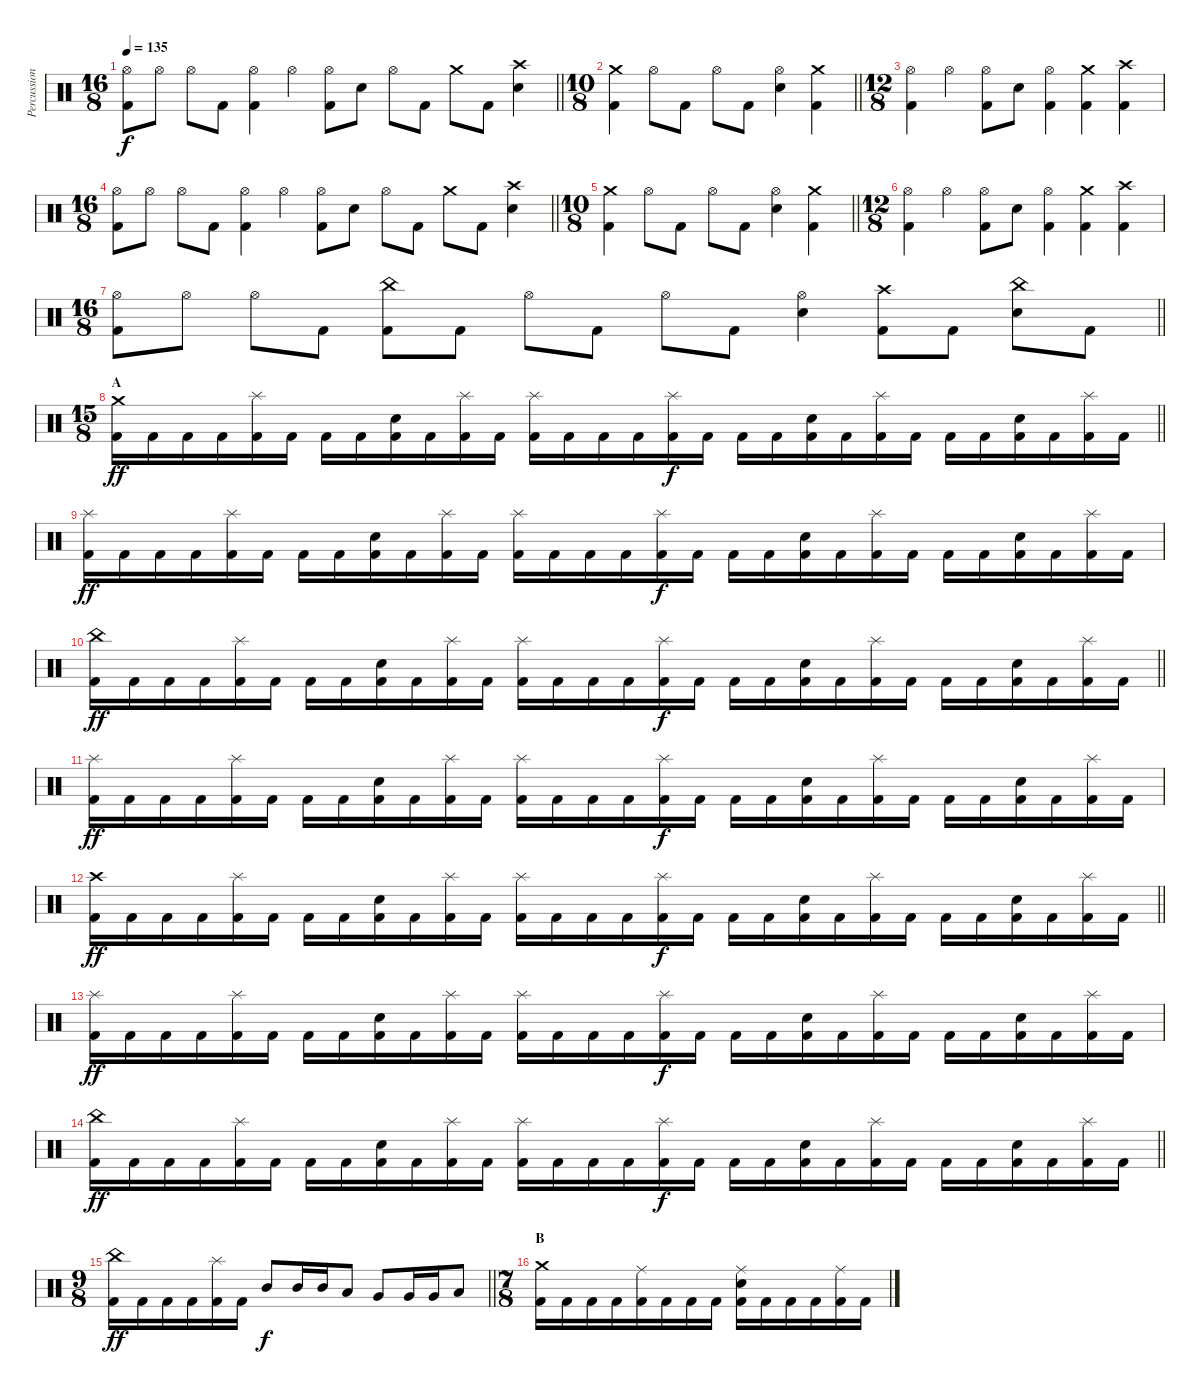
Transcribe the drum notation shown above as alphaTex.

\track ("Percussion" "Percussion") {instrument percussion}
\staff {score}
\articulation defaults
\ts (16 8)
\tempo 135
\clef neutral
\barLineRight lightlight
\ks c
("Hi-Hat (open)" "Kick (hit) 2").8{dy f} "Hi-Hat (open)".8 "Hi-Hat (open)".8 "Kick (hit) 2".8 ("Hi-Hat (open)" "Kick (hit) 2").4 "Hi-Hat (open)".4 ("Hi-Hat (open)" "Kick (hit) 2").8 "Snare (hit) 2".8 "Hi-Hat (open)".8 "Kick (hit) 2".8 "Crash medium (hit)".8 "Kick (hit) 2".8 ("Crash high (hit)" "Snare (hit) 2").4 |
\ts (10 8)
\section ("" "")
\barLineRight lightlight
("Crash medium (hit)" "Kick (hit) 2").4 "Hi-Hat (open)".8 "Kick (hit) 2".8 "Hi-Hat (open)".8 "Kick (hit) 2".8 ("Hi-Hat (open)" "Snare (hit) 2").4 ("Crash medium (hit)" "Kick (hit) 2").4 |
\ts (12 8)
("Hi-Hat (open)" "Kick (hit) 2").4 "Hi-Hat (open)".4 ("Hi-Hat (open)" "Kick (hit) 2").8 "Snare (hit) 2".8 ("Hi-Hat (open)" "Kick (hit) 2").4 ("Crash medium (hit)" "Kick (hit) 2").4 ("Crash high (hit)" "Kick (hit) 2").4 |
\ts (16 8)
\barLineRight lightlight
("Hi-Hat (open)" "Kick (hit) 2").8 "Hi-Hat (open)".8 "Hi-Hat (open)".8 "Kick (hit) 2".8 ("Hi-Hat (open)" "Kick (hit) 2").4 "Hi-Hat (open)".4 ("Hi-Hat (open)" "Kick (hit) 2").8 "Snare (hit) 2".8 "Hi-Hat (open)".8 "Kick (hit) 2".8 "Crash medium (hit)".8 "Kick (hit) 2".8 ("Crash high (hit)" "Snare (hit) 2").4 |
\ts (10 8)
\section ("" "")
\barLineRight lightlight
("Crash medium (hit)" "Kick (hit) 2").4 "Hi-Hat (open)".8 "Kick (hit) 2".8 "Hi-Hat (open)".8 "Kick (hit) 2".8 ("Hi-Hat (open)" "Snare (hit) 2").4 ("Crash medium (hit)" "Kick (hit) 2").4 |
\ts (12 8)
("Hi-Hat (open)" "Kick (hit) 2").4 "Hi-Hat (open)".4 ("Hi-Hat (open)" "Kick (hit) 2").8 "Snare (hit) 2".8 ("Hi-Hat (open)" "Kick (hit) 2").4 ("Crash medium (hit)" "Kick (hit) 2").4 ("Crash high (hit)" "Kick (hit) 2").4 |
\ts (16 8)
\barLineRight lightlight
("Hi-Hat (open)" "Kick (hit) 2").8 "Hi-Hat (open)".8 "Hi-Hat (open)".8 "Kick (hit) 2".8 ("China (hit)" "Kick (hit) 2").8 "Kick (hit) 2".8 "Hi-Hat (open)".8 "Kick (hit) 2".8 "Hi-Hat (open)".8 "Kick (hit) 2".8 ("Hi-Hat (open)" "Snare (hit) 2").4 ("Crash high (hit)" "Kick (hit) 2").8 "Kick (hit) 2".8 ("China (hit)" "Snare (hit) 2").8 "Kick (hit) 2".8 |
\ts (15 8)
\section ("" "A")
\barLineRight lightlight
("Crash medium (hit)" "Kick (hit) 2").16{dy ff} "Kick (hit) 2".16 "Kick (hit) 2".16 "Kick (hit) 2".16 ("Splash (hit)" "Kick (hit) 2").16 "Kick (hit) 2".16 "Kick (hit) 2".16 "Kick (hit) 2".16 ("Snare (hit) 2" "Kick (hit) 2").16 "Kick (hit) 2".16 ("Splash (hit)" "Kick (hit) 2").16 "Kick (hit) 2".16 ("Splash (hit)" "Kick (hit) 2").16 "Kick (hit) 2".16 "Kick (hit) 2".16 "Kick (hit) 2".16 ("Splash (hit)" "Kick (hit) 2").16{dy f} "Kick (hit) 2".16 "Kick (hit) 2".16 "Kick (hit) 2".16 ("Snare (hit) 2" "Kick (hit) 2").16 "Kick (hit) 2".16 ("Splash (hit)" "Kick (hit) 2").16 "Kick (hit) 2".16 "Kick (hit) 2".16 "Kick (hit) 2".16 ("Snare (hit) 2" "Kick (hit) 2").16 "Kick (hit) 2".16 ("Splash (hit)" "Kick (hit) 2").16 "Kick (hit) 2".16 |
("Splash (hit)" "Kick (hit) 2").16{dy ff} "Kick (hit) 2".16 "Kick (hit) 2".16 "Kick (hit) 2".16 ("Splash (hit)" "Kick (hit) 2").16 "Kick (hit) 2".16 "Kick (hit) 2".16 "Kick (hit) 2".16 ("Snare (hit) 2" "Kick (hit) 2").16 "Kick (hit) 2".16 ("Splash (hit)" "Kick (hit) 2").16 "Kick (hit) 2".16 ("Splash (hit)" "Kick (hit) 2").16 "Kick (hit) 2".16 "Kick (hit) 2".16 "Kick (hit) 2".16 ("Splash (hit)" "Kick (hit) 2").16{dy f} "Kick (hit) 2".16 "Kick (hit) 2".16 "Kick (hit) 2".16 ("Snare (hit) 2" "Kick (hit) 2").16 "Kick (hit) 2".16 ("Splash (hit)" "Kick (hit) 2").16 "Kick (hit) 2".16 "Kick (hit) 2".16 "Kick (hit) 2".16 ("Snare (hit) 2" "Kick (hit) 2").16 "Kick (hit) 2".16 ("Splash (hit)" "Kick (hit) 2").16 "Kick (hit) 2".16 |
\barLineRight lightlight
("China (hit)" "Kick (hit) 2").16{dy ff} "Kick (hit) 2".16 "Kick (hit) 2".16 "Kick (hit) 2".16 ("Splash (hit)" "Kick (hit) 2").16 "Kick (hit) 2".16 "Kick (hit) 2".16 "Kick (hit) 2".16 ("Snare (hit) 2" "Kick (hit) 2").16 "Kick (hit) 2".16 ("Splash (hit)" "Kick (hit) 2").16 "Kick (hit) 2".16 ("Splash (hit)" "Kick (hit) 2").16 "Kick (hit) 2".16 "Kick (hit) 2".16 "Kick (hit) 2".16 ("Splash (hit)" "Kick (hit) 2").16{dy f} "Kick (hit) 2".16 "Kick (hit) 2".16 "Kick (hit) 2".16 ("Snare (hit) 2" "Kick (hit) 2").16 "Kick (hit) 2".16 ("Splash (hit)" "Kick (hit) 2").16 "Kick (hit) 2".16 "Kick (hit) 2".16 "Kick (hit) 2".16 ("Snare (hit) 2" "Kick (hit) 2").16 "Kick (hit) 2".16 ("Splash (hit)" "Kick (hit) 2").16 "Kick (hit) 2".16 |
("Splash (hit)" "Kick (hit) 2").16{dy ff} "Kick (hit) 2".16 "Kick (hit) 2".16 "Kick (hit) 2".16 ("Splash (hit)" "Kick (hit) 2").16 "Kick (hit) 2".16 "Kick (hit) 2".16 "Kick (hit) 2".16 ("Snare (hit) 2" "Kick (hit) 2").16 "Kick (hit) 2".16 ("Splash (hit)" "Kick (hit) 2").16 "Kick (hit) 2".16 ("Splash (hit)" "Kick (hit) 2").16 "Kick (hit) 2".16 "Kick (hit) 2".16 "Kick (hit) 2".16 ("Splash (hit)" "Kick (hit) 2").16{dy f} "Kick (hit) 2".16 "Kick (hit) 2".16 "Kick (hit) 2".16 ("Snare (hit) 2" "Kick (hit) 2").16 "Kick (hit) 2".16 ("Splash (hit)" "Kick (hit) 2").16 "Kick (hit) 2".16 "Kick (hit) 2".16 "Kick (hit) 2".16 ("Snare (hit) 2" "Kick (hit) 2").16 "Kick (hit) 2".16 ("Splash (hit)" "Kick (hit) 2").16 "Kick (hit) 2".16 |
\barLineRight lightlight
("Crash high (hit)" "Kick (hit) 2").16{dy ff} "Kick (hit) 2".16 "Kick (hit) 2".16 "Kick (hit) 2".16 ("Splash (hit)" "Kick (hit) 2").16 "Kick (hit) 2".16 "Kick (hit) 2".16 "Kick (hit) 2".16 ("Snare (hit) 2" "Kick (hit) 2").16 "Kick (hit) 2".16 ("Splash (hit)" "Kick (hit) 2").16 "Kick (hit) 2".16 ("Splash (hit)" "Kick (hit) 2").16 "Kick (hit) 2".16 "Kick (hit) 2".16 "Kick (hit) 2".16 ("Splash (hit)" "Kick (hit) 2").16{dy f} "Kick (hit) 2".16 "Kick (hit) 2".16 "Kick (hit) 2".16 ("Snare (hit) 2" "Kick (hit) 2").16 "Kick (hit) 2".16 ("Splash (hit)" "Kick (hit) 2").16 "Kick (hit) 2".16 "Kick (hit) 2".16 "Kick (hit) 2".16 ("Snare (hit) 2" "Kick (hit) 2").16 "Kick (hit) 2".16 ("Splash (hit)" "Kick (hit) 2").16 "Kick (hit) 2".16 |
("Splash (hit)" "Kick (hit) 2").16{dy ff} "Kick (hit) 2".16 "Kick (hit) 2".16 "Kick (hit) 2".16 ("Splash (hit)" "Kick (hit) 2").16 "Kick (hit) 2".16 "Kick (hit) 2".16 "Kick (hit) 2".16 ("Snare (hit) 2" "Kick (hit) 2").16 "Kick (hit) 2".16 ("Splash (hit)" "Kick (hit) 2").16 "Kick (hit) 2".16 ("Splash (hit)" "Kick (hit) 2").16 "Kick (hit) 2".16 "Kick (hit) 2".16 "Kick (hit) 2".16 ("Splash (hit)" "Kick (hit) 2").16{dy f} "Kick (hit) 2".16 "Kick (hit) 2".16 "Kick (hit) 2".16 ("Snare (hit) 2" "Kick (hit) 2").16 "Kick (hit) 2".16 ("Splash (hit)" "Kick (hit) 2").16 "Kick (hit) 2".16 "Kick (hit) 2".16 "Kick (hit) 2".16 ("Snare (hit) 2" "Kick (hit) 2").16 "Kick (hit) 2".16 ("Splash (hit)" "Kick (hit) 2").16 "Kick (hit) 2".16 |
\barLineRight lightlight
("China (hit)" "Kick (hit) 2").16{dy ff} "Kick (hit) 2".16 "Kick (hit) 2".16 "Kick (hit) 2".16 ("Splash (hit)" "Kick (hit) 2").16 "Kick (hit) 2".16 "Kick (hit) 2".16 "Kick (hit) 2".16 ("Snare (hit) 2" "Kick (hit) 2").16 "Kick (hit) 2".16 ("Splash (hit)" "Kick (hit) 2").16 "Kick (hit) 2".16 ("Splash (hit)" "Kick (hit) 2").16 "Kick (hit) 2".16 "Kick (hit) 2".16 "Kick (hit) 2".16 ("Splash (hit)" "Kick (hit) 2").16{dy f} "Kick (hit) 2".16 "Kick (hit) 2".16 "Kick (hit) 2".16 ("Snare (hit) 2" "Kick (hit) 2").16 "Kick (hit) 2".16 ("Splash (hit)" "Kick (hit) 2").16 "Kick (hit) 2".16 "Kick (hit) 2".16 "Kick (hit) 2".16 ("Snare (hit) 2" "Kick (hit) 2").16 "Kick (hit) 2".16 ("Splash (hit)" "Kick (hit) 2").16 "Kick (hit) 2".16 |
\ts (9 8)
\barLineRight lightlight
("China (hit)" "Kick (hit) 2").16{dy ff} "Kick (hit) 2".16 "Kick (hit) 2".16 "Kick (hit) 2".16 ("Splash (hit)" "Kick (hit) 2").16 "Kick (hit) 2".16 "Mid Tom (hit)".8{dy f} "Mid Tom (hit)".16 "Mid Tom (hit)".16 "Low Tom (hit)".8 "Very Low Tom (hit)".8 "Very Low Tom (hit)".16 "Very Low Tom (hit)".16 "Low Floor Tom (hit)".8 |
\ts (7 8)
\section ("" "B")
("Crash medium (hit)" "Kick (hit) 2").16 "Kick (hit) 2".16 "Kick (hit) 2".16 "Kick (hit) 2".16 ("Ride (middle)" "Kick (hit) 2").16 "Kick (hit) 2".16 "Kick (hit) 2".16 "Kick (hit) 2".16 ("Ride (middle)" "Snare (hit) 2" "Kick (hit) 2").16 "Kick (hit) 2".16 "Kick (hit) 2".16 "Kick (hit) 2".16 ("Ride (middle)" "Kick (hit) 2").16 "Kick (hit) 2".16
